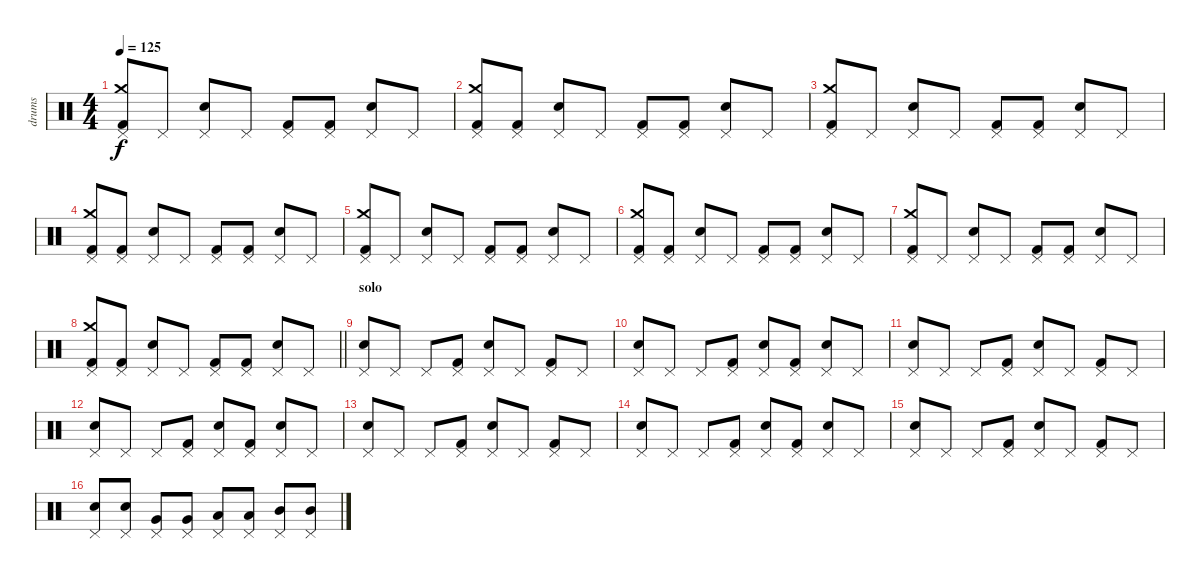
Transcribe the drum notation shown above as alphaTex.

\track ("drums" "drums") {instrument percussion}
\staff {score}
\articulation defaults
\ts (4 4)
\tempo 125
\clef neutral
\ks c
("Pedal Hi-Hat (hit)" "Crash medium (hit)" "Kick (hit) 2").8{dy f} "Pedal Hi-Hat (hit)".8 ("Pedal Hi-Hat (hit)" "Snare (hit) 2").8 "Pedal Hi-Hat (hit)".8 ("Pedal Hi-Hat (hit)" "Kick (hit) 2").8 ("Pedal Hi-Hat (hit)" "Kick (hit) 2").8 ("Pedal Hi-Hat (hit)" "Snare (hit) 2").8 "Pedal Hi-Hat (hit)".8 |
("Pedal Hi-Hat (hit)" "Crash medium (hit)" "Kick (hit) 2").8 ("Pedal Hi-Hat (hit)" "Kick (hit) 2").8 ("Pedal Hi-Hat (hit)" "Snare (hit) 2").8 "Pedal Hi-Hat (hit)".8 ("Pedal Hi-Hat (hit)" "Kick (hit) 2").8 ("Pedal Hi-Hat (hit)" "Kick (hit) 2").8 ("Pedal Hi-Hat (hit)" "Snare (hit) 2").8 "Pedal Hi-Hat (hit)".8 |
("Pedal Hi-Hat (hit)" "Crash medium (hit)" "Kick (hit) 2").8 "Pedal Hi-Hat (hit)".8 ("Pedal Hi-Hat (hit)" "Snare (hit) 2").8 "Pedal Hi-Hat (hit)".8 ("Pedal Hi-Hat (hit)" "Kick (hit) 2").8 ("Pedal Hi-Hat (hit)" "Kick (hit) 2").8 ("Pedal Hi-Hat (hit)" "Snare (hit) 2").8 "Pedal Hi-Hat (hit)".8 |
("Pedal Hi-Hat (hit)" "Crash medium (hit)" "Kick (hit) 2").8 ("Pedal Hi-Hat (hit)" "Kick (hit) 2").8 ("Pedal Hi-Hat (hit)" "Snare (hit) 2").8 "Pedal Hi-Hat (hit)".8 ("Pedal Hi-Hat (hit)" "Kick (hit) 2").8 ("Pedal Hi-Hat (hit)" "Kick (hit) 2").8 ("Pedal Hi-Hat (hit)" "Snare (hit) 2").8 "Pedal Hi-Hat (hit)".8 |
("Pedal Hi-Hat (hit)" "Crash medium (hit)" "Kick (hit) 2").8 "Pedal Hi-Hat (hit)".8 ("Pedal Hi-Hat (hit)" "Snare (hit) 2").8 "Pedal Hi-Hat (hit)".8 ("Pedal Hi-Hat (hit)" "Kick (hit) 2").8 ("Pedal Hi-Hat (hit)" "Kick (hit) 2").8 ("Pedal Hi-Hat (hit)" "Snare (hit) 2").8 "Pedal Hi-Hat (hit)".8 |
("Pedal Hi-Hat (hit)" "Crash medium (hit)" "Kick (hit) 2").8 ("Pedal Hi-Hat (hit)" "Kick (hit) 2").8 ("Pedal Hi-Hat (hit)" "Snare (hit) 2").8 "Pedal Hi-Hat (hit)".8 ("Pedal Hi-Hat (hit)" "Kick (hit) 2").8 ("Pedal Hi-Hat (hit)" "Kick (hit) 2").8 ("Pedal Hi-Hat (hit)" "Snare (hit) 2").8 "Pedal Hi-Hat (hit)".8 |
("Pedal Hi-Hat (hit)" "Crash medium (hit)" "Kick (hit) 2").8 "Pedal Hi-Hat (hit)".8 ("Pedal Hi-Hat (hit)" "Snare (hit) 2").8 "Pedal Hi-Hat (hit)".8 ("Pedal Hi-Hat (hit)" "Kick (hit) 2").8 ("Pedal Hi-Hat (hit)" "Kick (hit) 2").8 ("Pedal Hi-Hat (hit)" "Snare (hit) 2").8 "Pedal Hi-Hat (hit)".8 |
\barLineRight lightlight
("Pedal Hi-Hat (hit)" "Crash medium (hit)" "Kick (hit) 2").8 ("Pedal Hi-Hat (hit)" "Kick (hit) 2").8 ("Pedal Hi-Hat (hit)" "Snare (hit) 2").8 "Pedal Hi-Hat (hit)".8 ("Pedal Hi-Hat (hit)" "Kick (hit) 2").8 ("Pedal Hi-Hat (hit)" "Kick (hit) 2").8 ("Pedal Hi-Hat (hit)" "Snare (hit) 2").8 "Pedal Hi-Hat (hit)".8 |
\section ("" "solo")
("Pedal Hi-Hat (hit)" "Snare (hit) 2").8 "Pedal Hi-Hat (hit)".8 "Pedal Hi-Hat (hit)".8 ("Pedal Hi-Hat (hit)" "Kick (hit) 2").8 ("Pedal Hi-Hat (hit)" "Snare (hit) 2").8 "Pedal Hi-Hat (hit)".8 ("Pedal Hi-Hat (hit)" "Kick (hit) 2").8 "Pedal Hi-Hat (hit)".8 |
("Pedal Hi-Hat (hit)" "Snare (hit) 2").8 "Pedal Hi-Hat (hit)".8 "Pedal Hi-Hat (hit)".8 ("Pedal Hi-Hat (hit)" "Kick (hit) 2").8 ("Pedal Hi-Hat (hit)" "Snare (hit) 2").8 ("Pedal Hi-Hat (hit)" "Kick (hit) 2").8 ("Pedal Hi-Hat (hit)" "Snare (hit) 2").8 "Pedal Hi-Hat (hit)".8 |
("Pedal Hi-Hat (hit)" "Snare (hit) 2").8 "Pedal Hi-Hat (hit)".8 "Pedal Hi-Hat (hit)".8 ("Pedal Hi-Hat (hit)" "Kick (hit) 2").8 ("Pedal Hi-Hat (hit)" "Snare (hit) 2").8 "Pedal Hi-Hat (hit)".8 ("Pedal Hi-Hat (hit)" "Kick (hit) 2").8 "Pedal Hi-Hat (hit)".8 |
("Pedal Hi-Hat (hit)" "Snare (hit) 2").8 "Pedal Hi-Hat (hit)".8 "Pedal Hi-Hat (hit)".8 ("Pedal Hi-Hat (hit)" "Kick (hit) 2").8 ("Pedal Hi-Hat (hit)" "Snare (hit) 2").8 ("Pedal Hi-Hat (hit)" "Kick (hit) 2").8 ("Pedal Hi-Hat (hit)" "Snare (hit) 2").8 "Pedal Hi-Hat (hit)".8 |
("Pedal Hi-Hat (hit)" "Snare (hit) 2").8 "Pedal Hi-Hat (hit)".8 "Pedal Hi-Hat (hit)".8 ("Pedal Hi-Hat (hit)" "Kick (hit) 2").8 ("Pedal Hi-Hat (hit)" "Snare (hit) 2").8 "Pedal Hi-Hat (hit)".8 ("Pedal Hi-Hat (hit)" "Kick (hit) 2").8 "Pedal Hi-Hat (hit)".8 |
("Pedal Hi-Hat (hit)" "Snare (hit) 2").8 "Pedal Hi-Hat (hit)".8 "Pedal Hi-Hat (hit)".8 ("Pedal Hi-Hat (hit)" "Kick (hit) 2").8 ("Pedal Hi-Hat (hit)" "Snare (hit) 2").8 ("Pedal Hi-Hat (hit)" "Kick (hit) 2").8 ("Pedal Hi-Hat (hit)" "Snare (hit) 2").8 "Pedal Hi-Hat (hit)".8 |
("Pedal Hi-Hat (hit)" "Snare (hit) 2").8 "Pedal Hi-Hat (hit)".8 "Pedal Hi-Hat (hit)".8 ("Pedal Hi-Hat (hit)" "Kick (hit) 2").8 ("Pedal Hi-Hat (hit)" "Snare (hit) 2").8 "Pedal Hi-Hat (hit)".8 ("Pedal Hi-Hat (hit)" "Kick (hit) 2").8 "Pedal Hi-Hat (hit)".8 |
("Pedal Hi-Hat (hit)" "Snare (hit) 2").8 ("Pedal Hi-Hat (hit)" "Snare (hit) 2").8 ("Pedal Hi-Hat (hit)" "Very Low Tom (hit)").8 ("Pedal Hi-Hat (hit)" "Very Low Tom (hit)").8 ("Pedal Hi-Hat (hit)" "Low Tom (hit)").8 ("Pedal Hi-Hat (hit)" "Low Tom (hit)").8 ("Pedal Hi-Hat (hit)" "Mid Tom (hit)").8 ("Pedal Hi-Hat (hit)" "Mid Tom (hit)").8
